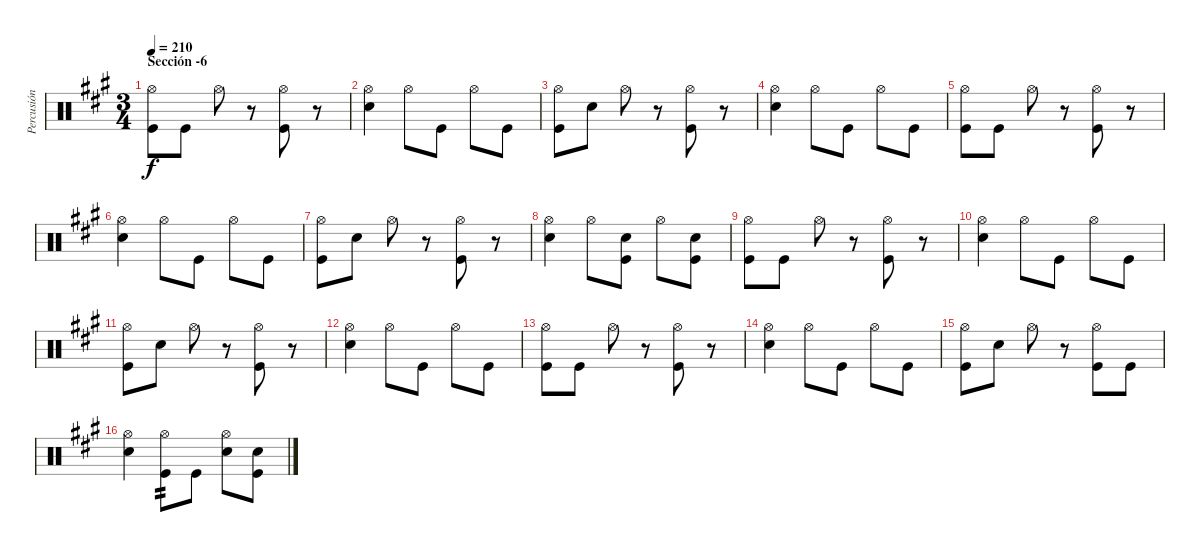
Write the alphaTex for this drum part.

\track ("Percusión" "Percusión") {instrument percussion}
\staff {score}
\articulation defaults
\ts (3 4)
\section ("" "Sección -6")
\tempo 210
\clef neutral
\ks a
("Hi-Hat (open)" "Kick (hit)").8{dy f} "Kick (hit)".8 "Hi-Hat (open)".8 r.8 ("Hi-Hat (open)" "Kick (hit)").8 r.8 |
("Hi-Hat (open)" "Electric Snare (hit)").4 "Hi-Hat (open)".8 "Kick (hit)".8 "Hi-Hat (open)".8 "Kick (hit)".8 |
("Hi-Hat (open)" "Kick (hit)").8 "Electric Snare (hit)".8 "Hi-Hat (open)".8 r.8 ("Hi-Hat (open)" "Kick (hit)").8 r.8 |
("Hi-Hat (open)" "Electric Snare (hit)").4 "Hi-Hat (open)".8 "Kick (hit)".8 "Hi-Hat (open)".8 "Kick (hit)".8 |
("Hi-Hat (open)" "Kick (hit)").8 "Kick (hit)".8 "Hi-Hat (open)".8 r.8 ("Hi-Hat (open)" "Kick (hit)").8 r.8 |
("Hi-Hat (open)" "Electric Snare (hit)").4 "Hi-Hat (open)".8 "Kick (hit)".8 "Hi-Hat (open)".8 "Kick (hit)".8 |
("Hi-Hat (open)" "Kick (hit)").8 "Electric Snare (hit)".8 "Hi-Hat (open)".8 r.8 ("Hi-Hat (open)" "Kick (hit)").8 r.8 |
("Hi-Hat (open)" "Electric Snare (hit)").4 "Hi-Hat (open)".8 ("Electric Snare (hit)" "Kick (hit)").8 "Hi-Hat (open)".8 ("Electric Snare (hit)" "Kick (hit)").8 |
("Hi-Hat (open)" "Kick (hit)").8 "Kick (hit)".8 "Hi-Hat (open)".8 r.8 ("Hi-Hat (open)" "Kick (hit)").8 r.8 |
("Hi-Hat (open)" "Electric Snare (hit)").4 "Hi-Hat (open)".8 "Kick (hit)".8 "Hi-Hat (open)".8 "Kick (hit)".8 |
("Hi-Hat (open)" "Kick (hit)").8 "Electric Snare (hit)".8 "Hi-Hat (open)".8 r.8 ("Hi-Hat (open)" "Kick (hit)").8 r.8 |
("Hi-Hat (open)" "Electric Snare (hit)").4 "Hi-Hat (open)".8 "Kick (hit)".8 "Hi-Hat (open)".8 "Kick (hit)".8 |
("Hi-Hat (open)" "Kick (hit)").8 "Kick (hit)".8 "Hi-Hat (open)".8 r.8 ("Hi-Hat (open)" "Kick (hit)").8 r.8 |
("Hi-Hat (open)" "Electric Snare (hit)").4 "Hi-Hat (open)".8 "Kick (hit)".8 "Hi-Hat (open)".8 "Kick (hit)".8 |
("Hi-Hat (open)" "Kick (hit)").8 "Electric Snare (hit)".8 "Hi-Hat (open)".8 r.8 ("Hi-Hat (open)" "Kick (hit)").8 "Kick (hit)".8 |
("Hi-Hat (open)" "Electric Snare (hit)").4 ("Hi-Hat (open)" "Kick (hit)").8{tp 2} "Kick (hit)".8 ("Hi-Hat (open)" "Electric Snare (hit)").8 ("Electric Snare (hit)" "Kick (hit)").8
